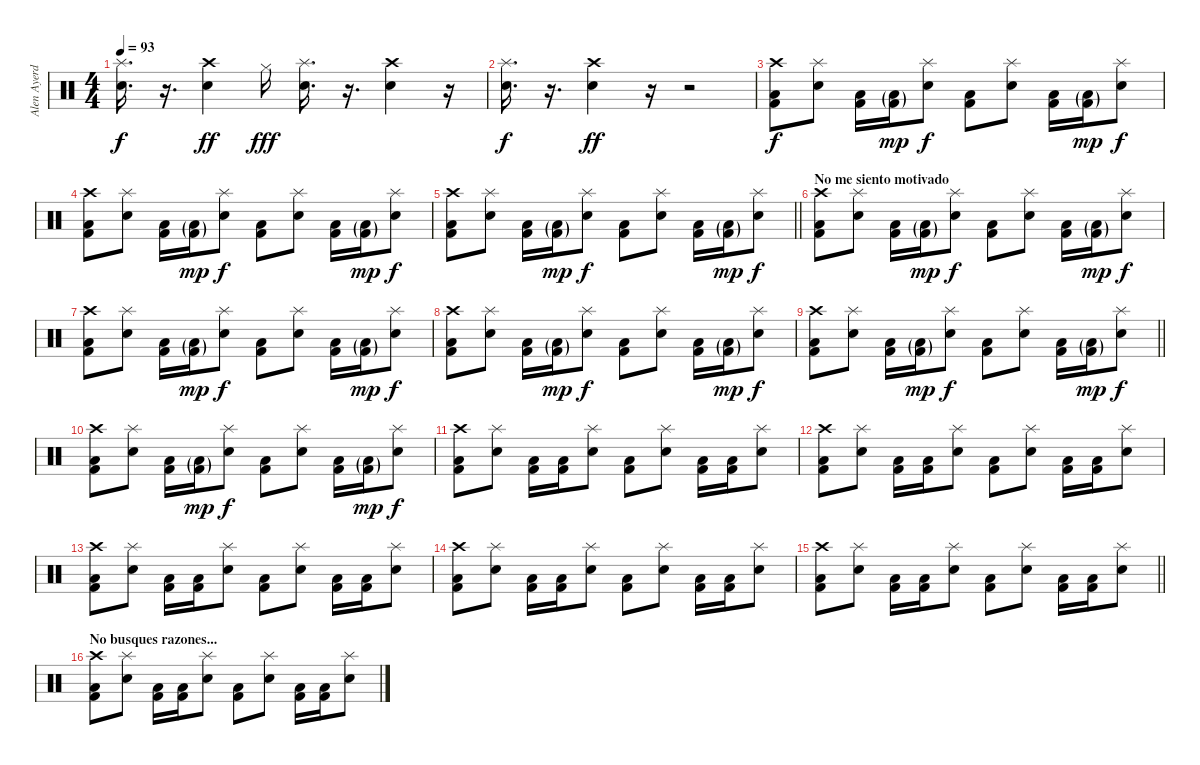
\track ("Alen Ayerdi" "Alen Ayerd") {instrument percussion}
\staff {score}
\articulation defaults
\ts (4 4)
\tempo 93
\clef neutral
\ks c
("Splash (hit)" "Electric Snare (hit)").16{d dy f} r.16{d} ("Crash high (hit)" "Electric Snare (hit)").4{dy ff} "Hi-Hat (closed)".16{dy fff} ("Splash (hit)" "Electric Snare (hit)").16{d} r.16{d} ("Crash high (hit)" "Electric Snare (hit)").4 r.16 |
("Splash (hit)" "Electric Snare (hit)").16{d dy f} r.16{d} ("Crash high (hit)" "Electric Snare (hit)").4{dy ff} r.16 r.2 |
("Crash high (hit)" "Low Floor Tom (hit)" "Kick (hit) 2").8{dy f} ("Splash (hit)" "Electric Snare (hit)").8 ("Low Floor Tom (hit)" "Kick (hit) 2").16 ("Low Floor Tom (hit)"{g} "Kick (hit) 2"{g}).16{dy mp} ("Splash (hit)" "Electric Snare (hit)").8{dy f} ("Low Floor Tom (hit)" "Kick (hit) 2").8 ("Splash (hit)" "Electric Snare (hit)").8 ("Low Floor Tom (hit)" "Kick (hit) 2").16 ("Low Floor Tom (hit)"{g} "Kick (hit) 2"{g}).16{dy mp} ("Splash (hit)" "Electric Snare (hit)").8{dy f} |
("Crash high (hit)" "Low Floor Tom (hit)" "Kick (hit) 2").8 ("Splash (hit)" "Electric Snare (hit)").8 ("Low Floor Tom (hit)" "Kick (hit) 2").16 ("Low Floor Tom (hit)"{g} "Kick (hit) 2"{g}).16{dy mp} ("Splash (hit)" "Electric Snare (hit)").8{dy f} ("Low Floor Tom (hit)" "Kick (hit) 2").8 ("Splash (hit)" "Electric Snare (hit)").8 ("Low Floor Tom (hit)" "Kick (hit) 2").16 ("Low Floor Tom (hit)"{g} "Kick (hit) 2"{g}).16{dy mp} ("Splash (hit)" "Electric Snare (hit)").8{dy f} |
\barLineRight lightlight
("Crash high (hit)" "Low Floor Tom (hit)" "Kick (hit) 2").8 ("Splash (hit)" "Electric Snare (hit)").8 ("Low Floor Tom (hit)" "Kick (hit) 2").16 ("Low Floor Tom (hit)"{g} "Kick (hit) 2"{g}).16{dy mp} ("Splash (hit)" "Electric Snare (hit)").8{dy f} ("Low Floor Tom (hit)" "Kick (hit) 2").8 ("Splash (hit)" "Electric Snare (hit)").8 ("Low Floor Tom (hit)" "Kick (hit) 2").16 ("Low Floor Tom (hit)"{g} "Kick (hit) 2"{g}).16{dy mp} ("Splash (hit)" "Electric Snare (hit)").8{dy f} |
\section ("" "No me siento motivado")
("Crash high (hit)" "Low Floor Tom (hit)" "Kick (hit) 2").8 ("Splash (hit)" "Electric Snare (hit)").8 ("Low Floor Tom (hit)" "Kick (hit) 2").16 ("Low Floor Tom (hit)"{g} "Kick (hit) 2"{g}).16{dy mp} ("Splash (hit)" "Electric Snare (hit)").8{dy f} ("Low Floor Tom (hit)" "Kick (hit) 2").8 ("Splash (hit)" "Electric Snare (hit)").8 ("Low Floor Tom (hit)" "Kick (hit) 2").16 ("Low Floor Tom (hit)"{g} "Kick (hit) 2"{g}).16{dy mp} ("Splash (hit)" "Electric Snare (hit)").8{dy f} |
("Crash high (hit)" "Low Floor Tom (hit)" "Kick (hit) 2").8 ("Splash (hit)" "Electric Snare (hit)").8 ("Low Floor Tom (hit)" "Kick (hit) 2").16 ("Low Floor Tom (hit)"{g} "Kick (hit) 2"{g}).16{dy mp} ("Splash (hit)" "Electric Snare (hit)").8{dy f} ("Low Floor Tom (hit)" "Kick (hit) 2").8 ("Splash (hit)" "Electric Snare (hit)").8 ("Low Floor Tom (hit)" "Kick (hit) 2").16 ("Low Floor Tom (hit)"{g} "Kick (hit) 2"{g}).16{dy mp} ("Splash (hit)" "Electric Snare (hit)").8{dy f} |
("Crash high (hit)" "Low Floor Tom (hit)" "Kick (hit) 2").8 ("Splash (hit)" "Electric Snare (hit)").8 ("Low Floor Tom (hit)" "Kick (hit) 2").16 ("Low Floor Tom (hit)"{g} "Kick (hit) 2"{g}).16{dy mp} ("Splash (hit)" "Electric Snare (hit)").8{dy f} ("Low Floor Tom (hit)" "Kick (hit) 2").8 ("Splash (hit)" "Electric Snare (hit)").8 ("Low Floor Tom (hit)" "Kick (hit) 2").16 ("Low Floor Tom (hit)"{g} "Kick (hit) 2"{g}).16{dy mp} ("Splash (hit)" "Electric Snare (hit)").8{dy f} |
\barLineRight lightlight
("Crash high (hit)" "Low Floor Tom (hit)" "Kick (hit) 2").8 ("Splash (hit)" "Electric Snare (hit)").8 ("Low Floor Tom (hit)" "Kick (hit) 2").16 ("Low Floor Tom (hit)"{g} "Kick (hit) 2"{g}).16{dy mp} ("Splash (hit)" "Electric Snare (hit)").8{dy f} ("Low Floor Tom (hit)" "Kick (hit) 2").8 ("Splash (hit)" "Electric Snare (hit)").8 ("Low Floor Tom (hit)" "Kick (hit) 2").16 ("Low Floor Tom (hit)"{g} "Kick (hit) 2"{g}).16{dy mp} ("Splash (hit)" "Electric Snare (hit)").8{dy f} |
("Crash high (hit)" "Low Floor Tom (hit)" "Kick (hit) 2").8 ("Splash (hit)" "Electric Snare (hit)").8 ("Low Floor Tom (hit)" "Kick (hit) 2").16 ("Low Floor Tom (hit)"{g} "Kick (hit) 2"{g}).16{dy mp} ("Splash (hit)" "Electric Snare (hit)").8{dy f} ("Low Floor Tom (hit)" "Kick (hit) 2").8 ("Splash (hit)" "Electric Snare (hit)").8 ("Low Floor Tom (hit)" "Kick (hit) 2").16 ("Low Floor Tom (hit)"{g} "Kick (hit) 2"{g}).16{dy mp} ("Splash (hit)" "Electric Snare (hit)").8{dy f} |
("Crash high (hit)" "Low Floor Tom (hit)" "Kick (hit) 2").8 ("Splash (hit)" "Electric Snare (hit)").8 ("Low Floor Tom (hit)" "Kick (hit) 2").16 ("Low Floor Tom (hit)" "Kick (hit) 2").16 ("Splash (hit)" "Electric Snare (hit)").8 ("Low Floor Tom (hit)" "Kick (hit) 2").8 ("Splash (hit)" "Electric Snare (hit)").8 ("Low Floor Tom (hit)" "Kick (hit) 2").16 ("Low Floor Tom (hit)" "Kick (hit) 2").16 ("Splash (hit)" "Electric Snare (hit)").8 |
("Crash high (hit)" "Low Floor Tom (hit)" "Kick (hit) 2").8 ("Splash (hit)" "Electric Snare (hit)").8 ("Low Floor Tom (hit)" "Kick (hit) 2").16 ("Low Floor Tom (hit)" "Kick (hit) 2").16 ("Splash (hit)" "Electric Snare (hit)").8 ("Low Floor Tom (hit)" "Kick (hit) 2").8 ("Splash (hit)" "Electric Snare (hit)").8 ("Low Floor Tom (hit)" "Kick (hit) 2").16 ("Low Floor Tom (hit)" "Kick (hit) 2").16 ("Splash (hit)" "Electric Snare (hit)").8 |
("Crash high (hit)" "Low Floor Tom (hit)" "Kick (hit) 2").8 ("Splash (hit)" "Electric Snare (hit)").8 ("Low Floor Tom (hit)" "Kick (hit) 2").16 ("Low Floor Tom (hit)" "Kick (hit) 2").16 ("Splash (hit)" "Electric Snare (hit)").8 ("Low Floor Tom (hit)" "Kick (hit) 2").8 ("Splash (hit)" "Electric Snare (hit)").8 ("Low Floor Tom (hit)" "Kick (hit) 2").16 ("Low Floor Tom (hit)" "Kick (hit) 2").16 ("Splash (hit)" "Electric Snare (hit)").8 |
("Crash high (hit)" "Low Floor Tom (hit)" "Kick (hit) 2").8 ("Splash (hit)" "Electric Snare (hit)").8 ("Low Floor Tom (hit)" "Kick (hit) 2").16 ("Low Floor Tom (hit)" "Kick (hit) 2").16 ("Splash (hit)" "Electric Snare (hit)").8 ("Low Floor Tom (hit)" "Kick (hit) 2").8 ("Splash (hit)" "Electric Snare (hit)").8 ("Low Floor Tom (hit)" "Kick (hit) 2").16 ("Low Floor Tom (hit)" "Kick (hit) 2").16 ("Splash (hit)" "Electric Snare (hit)").8 |
\barLineRight lightlight
("Crash high (hit)" "Low Floor Tom (hit)" "Kick (hit) 2").8 ("Splash (hit)" "Electric Snare (hit)").8 ("Low Floor Tom (hit)" "Kick (hit) 2").16 ("Low Floor Tom (hit)" "Kick (hit) 2").16 ("Splash (hit)" "Electric Snare (hit)").8 ("Low Floor Tom (hit)" "Kick (hit) 2").8 ("Splash (hit)" "Electric Snare (hit)").8 ("Low Floor Tom (hit)" "Kick (hit) 2").16 ("Low Floor Tom (hit)" "Kick (hit) 2").16 ("Splash (hit)" "Electric Snare (hit)").8 |
\section ("" "No busques razones...")
("Crash high (hit)" "Low Floor Tom (hit)" "Kick (hit) 2").8 ("Splash (hit)" "Electric Snare (hit)").8 ("Low Floor Tom (hit)" "Kick (hit) 2").16 ("Low Floor Tom (hit)" "Kick (hit) 2").16 ("Splash (hit)" "Electric Snare (hit)").8 ("Low Floor Tom (hit)" "Kick (hit) 2").8 ("Splash (hit)" "Electric Snare (hit)").8 ("Low Floor Tom (hit)" "Kick (hit) 2").16 ("Low Floor Tom (hit)" "Kick (hit) 2").16 ("Splash (hit)" "Electric Snare (hit)").8
